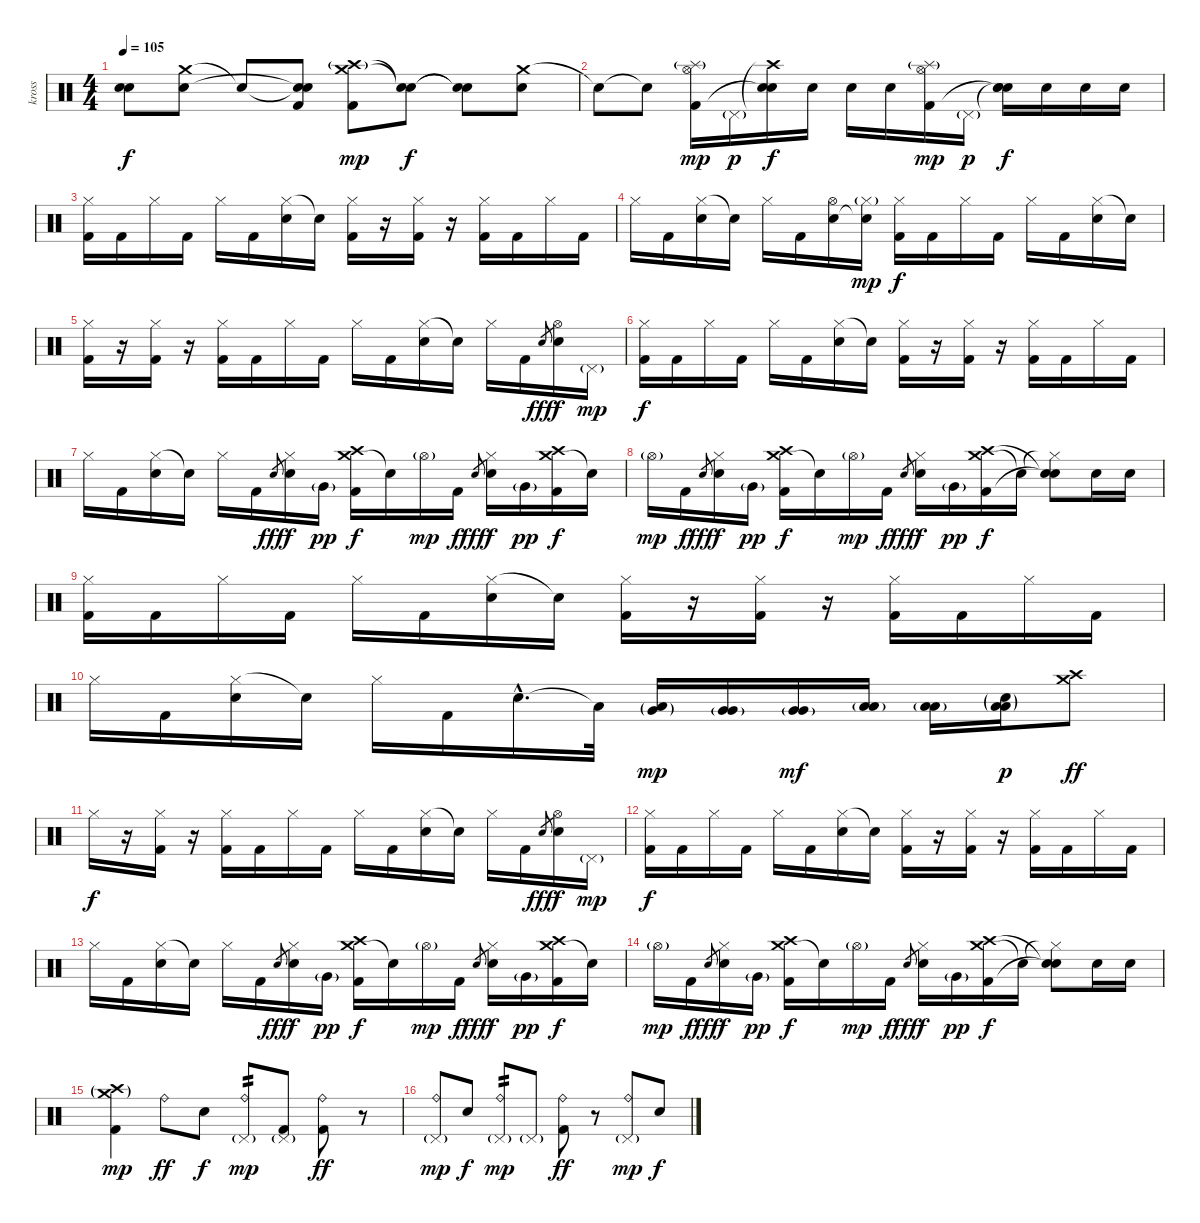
\track ("kross" "kross") {instrument percussion}
\staff {score}
\articulation defaults
\ts (4 4)
\tempo 105
\clef neutral
\ks c
("Snare (hit)"{t} "Snare (hit)"{t}).8{dy f} ("Crash medium (hit)" "Electric Snare (hit)").8 "Snare (hit)"{t}.8 ("Snare (hit)"{t} "Snare (hit)"{t} "Kick (hit) 2").8 ("Crash medium (hit)" "Crash high (hit)"{g} "Kick (hit) 2").8{dy mp} ("Snare (hit)"{t} "Snare (hit)"{t}).8{dy f} ("Snare (hit)"{t} "Snare (hit)"{t}).8 ("Crash medium (hit)" "Electric Snare (hit)").8 |
"Snare (hit)"{t}.8 "Snare (hit)"{t}.8 ("Splash (hit)"{g} "Hi-Hat (open)" "Kick (hit) 2").16{dy mp} "Pedal Hi-Hat (hit)"{g}.16{dy p} ("Crash high (hit)"{t} "Electric Snare (hit)" "Snare (hit)"{t}).16{dy f} "Electric Snare (hit)".16 "Electric Snare (hit)".16 "Electric Snare (hit)".16 ("Splash (hit)"{g} "Hi-Hat (open)" "Kick (hit) 2").16{dy mp} "Pedal Hi-Hat (hit)"{g}.16{dy p} ("Snare (hit)"{t} "Electric Snare (hit)" "Snare (hit)"{t}).16{dy f} "Electric Snare (hit)".16 "Electric Snare (hit)".16 "Electric Snare (hit)".16 |
("Hi-Hat (closed)" "Kick (hit) 2").16 "Kick (hit) 2".16 "Hi-Hat (closed)".16 "Kick (hit) 2".16 "Hi-Hat (closed)".16 "Kick (hit) 2".16 ("Hi-Hat (closed)" "Electric Snare (hit)").16 "Snare (hit)"{t}.16 ("Hi-Hat (closed)" "Kick (hit) 2").16 r.16 ("Hi-Hat (closed)" "Kick (hit) 2").16 r.16 ("Hi-Hat (closed)" "Kick (hit) 2").16 "Kick (hit) 2".16 "Hi-Hat (closed)".16 "Kick (hit) 2".16 |
"Hi-Hat (closed)".16 "Kick (hit) 2".16 ("Hi-Hat (closed)" "Electric Snare (hit)").16 "Snare (hit)"{t}.16 "Hi-Hat (closed)".16 "Kick (hit) 2".16 ("Hi-Hat (open)" "Electric Snare (hit)").16 ("Hi-Hat (closed)"{g} "Snare (hit)"{t}).16{dy mp} ("Hi-Hat (closed)" "Kick (hit) 2").16{dy f} "Kick (hit) 2".16 "Hi-Hat (closed)".16 "Kick (hit) 2".16 "Hi-Hat (closed)".16 "Kick (hit) 2".16 ("Hi-Hat (closed)" "Electric Snare (hit)").16 "Snare (hit)"{t}.16 |
("Hi-Hat (closed)" "Kick (hit) 2").16 r.16 ("Hi-Hat (closed)" "Kick (hit) 2").16 r.16 ("Hi-Hat (closed)" "Kick (hit) 2").16 "Kick (hit) 2".16 "Hi-Hat (closed)".16 "Kick (hit) 2".16 "Hi-Hat (closed)".16 "Kick (hit) 2".16 ("Hi-Hat (closed)" "Electric Snare (hit)").16 "Snare (hit)"{t}.16 "Hi-Hat (closed)".16 "Kick (hit) 2".16 "Electric Snare (hit)".8{gr dy fff} ("Hi-Hat (open)" "Electric Snare (hit)").16{dy f} "Pedal Hi-Hat (hit)"{g}.16{dy mp} |
("Hi-Hat (closed)" "Kick (hit) 2").16{dy f} "Kick (hit) 2".16 "Hi-Hat (closed)".16 "Kick (hit) 2".16 "Hi-Hat (closed)".16 "Kick (hit) 2".16 ("Hi-Hat (closed)" "Electric Snare (hit)").16 "Snare (hit)"{t}.16 ("Hi-Hat (closed)" "Kick (hit) 2").16 r.16 ("Hi-Hat (closed)" "Kick (hit) 2").16 r.16 ("Hi-Hat (closed)" "Kick (hit) 2").16 "Kick (hit) 2".16 "Hi-Hat (closed)".16 "Kick (hit) 2".16 |
"Hi-Hat (closed)".16 "Kick (hit) 2".16 ("Hi-Hat (closed)" "Electric Snare (hit)").16 "Snare (hit)"{t}.16 "Hi-Hat (closed)".16 "Kick (hit) 2".16 "Electric Snare (hit)".8{gr dy fff} ("Hi-Hat (closed)" "Electric Snare (hit)").16{dy f} "Very Low Tom (hit)"{g}.16{dy pp} ("Crash medium (hit)" "Crash high (hit)" "Kick (hit) 2").16{dy f} "Snare (hit)"{t}.16 "Hi-Hat (open)"{g}.16{dy mp} "Kick (hit) 2".16{dy f} "Electric Snare (hit)".8{gr dy fff} ("Hi-Hat (closed)" "Electric Snare (hit)").16{dy f} "Very Low Tom (hit)"{g}.16{dy pp} ("Crash medium (hit)" "Crash high (hit)" "Kick (hit) 2").16{dy f} "Snare (hit)"{t}.16 |
"Hi-Hat (open)"{g}.16{dy mp} "Kick (hit) 2".16{dy f} "Electric Snare (hit)".8{gr dy fff} ("Hi-Hat (closed)" "Electric Snare (hit)").16{dy f} "Very Low Tom (hit)"{g}.16{dy pp} ("Crash medium (hit)" "Crash high (hit)" "Kick (hit) 2").16{dy f} "Snare (hit)"{t}.16 "Hi-Hat (open)"{g}.16{dy mp} "Kick (hit) 2".16{dy f} "Electric Snare (hit)".8{gr dy fff} ("Hi-Hat (closed)" "Electric Snare (hit)").16{dy f} "Very Low Tom (hit)"{g}.16{dy pp} ("Crash medium (hit)" "Crash high (hit)" "Kick (hit) 2").16{dy f} "Snare (hit)"{t}.16 ("Hi-Hat (closed)"{t} "Snare (hit)"{t} "Snare (hit)"{t}).8 "Electric Snare (hit)".16 "Electric Snare (hit)".16 |
("Hi-Hat (closed)" "Kick (hit) 2").16 "Kick (hit) 2".16 "Hi-Hat (closed)".16 "Kick (hit) 2".16 "Hi-Hat (closed)".16 "Kick (hit) 2".16 ("Hi-Hat (closed)" "Electric Snare (hit)").16 "Snare (hit)"{t}.16 ("Hi-Hat (closed)" "Kick (hit) 2").16 r.16 ("Hi-Hat (closed)" "Kick (hit) 2").16 r.16 ("Hi-Hat (closed)" "Kick (hit) 2").16 "Kick (hit) 2".16 "Hi-Hat (closed)".16 "Kick (hit) 2".16 |
"Hi-Hat (closed)".16 "Kick (hit) 2".16 ("Hi-Hat (closed)" "Electric Snare (hit)").16 "Snare (hit)"{t}.16 "Hi-Hat (closed)".16 "Kick (hit) 2".16 "Electric Snare (hit)"{hac}.16{d} "Low Tom (hit)"{t}.32 ("Very Low Tom (hit)"{g} "Low Tom (hit)"{g}).16{dy mp} ("Very Low Tom (hit)"{g} "Very Low Tom (hit)"{g}).16 ("Very Low Tom (hit)"{g} "Very Low Tom (hit)"{g}).16{dy mf} ("Low Floor Tom (hit)"{g} "Low Floor Tom (hit)"{g}).16 ("Low Floor Tom (hit)"{g} "Low Floor Tom (hit)"{g}).16 ("Electric Snare (hit)"{g} "Low Floor Tom (hit)"{g} "Low Floor Tom (hit)"{g}).16{dy p} ("Crash medium (hit)" "Crash high (hit)").8{dy ff} |
"Hi-Hat (closed)".16{dy f} r.16 ("Hi-Hat (closed)" "Kick (hit) 2").16 r.16 ("Hi-Hat (closed)" "Kick (hit) 2").16 "Kick (hit) 2".16 "Hi-Hat (closed)".16 "Kick (hit) 2".16 "Hi-Hat (closed)".16 "Kick (hit) 2".16 ("Hi-Hat (closed)" "Electric Snare (hit)").16 "Snare (hit)"{t}.16 "Hi-Hat (closed)".16 "Kick (hit) 2".16 "Electric Snare (hit)".8{gr dy fff} ("Hi-Hat (open)" "Electric Snare (hit)").16{dy f} "Pedal Hi-Hat (hit)"{g}.16{dy mp} |
("Hi-Hat (closed)" "Kick (hit) 2").16{dy f} "Kick (hit) 2".16 "Hi-Hat (closed)".16 "Kick (hit) 2".16 "Hi-Hat (closed)".16 "Kick (hit) 2".16 ("Hi-Hat (closed)" "Electric Snare (hit)").16 "Snare (hit)"{t}.16 ("Hi-Hat (closed)" "Kick (hit) 2").16 r.16 ("Hi-Hat (closed)" "Kick (hit) 2").16 r.16 ("Hi-Hat (closed)" "Kick (hit) 2").16 "Kick (hit) 2".16 "Hi-Hat (closed)".16 "Kick (hit) 2".16 |
"Hi-Hat (closed)".16 "Kick (hit) 2".16 ("Hi-Hat (closed)" "Electric Snare (hit)").16 "Snare (hit)"{t}.16 "Hi-Hat (closed)".16 "Kick (hit) 2".16 "Electric Snare (hit)".8{gr dy fff} ("Hi-Hat (closed)" "Electric Snare (hit)").16{dy f} "Very Low Tom (hit)"{g}.16{dy pp} ("Crash medium (hit)" "Crash high (hit)" "Kick (hit) 2").16{dy f} "Snare (hit)"{t}.16 "Hi-Hat (open)"{g}.16{dy mp} "Kick (hit) 2".16{dy f} "Electric Snare (hit)".8{gr dy fff} ("Hi-Hat (closed)" "Electric Snare (hit)").16{dy f} "Very Low Tom (hit)"{g}.16{dy pp} ("Crash medium (hit)" "Crash high (hit)" "Kick (hit) 2").16{dy f} "Snare (hit)"{t}.16 |
"Hi-Hat (open)"{g}.16{dy mp} "Kick (hit) 2".16{dy f} "Electric Snare (hit)".8{gr dy fff} ("Hi-Hat (closed)" "Electric Snare (hit)").16{dy f} "Very Low Tom (hit)"{g}.16{dy pp} ("Crash medium (hit)" "Crash high (hit)" "Kick (hit) 2").16{dy f} "Snare (hit)"{t}.16 "Hi-Hat (open)"{g}.16{dy mp} "Kick (hit) 2".16{dy f} "Electric Snare (hit)".8{gr dy fff} ("Hi-Hat (closed)" "Electric Snare (hit)").16{dy f} "Very Low Tom (hit)"{g}.16{dy pp} ("Crash medium (hit)" "Crash high (hit)" "Kick (hit) 2").16{dy f} "Snare (hit)"{t}.16 ("Hi-Hat (closed)"{t} "Snare (hit)"{t} "Snare (hit)"{t}).8 "Electric Snare (hit)".16 "Electric Snare (hit)".16 |
("Crash medium (hit)"{g} "Crash high (hit)"{g} "Kick (hit) 2").4{dy mp} "Ride (bell)".8{dy ff} "Electric Snare (hit)".8{dy f} ("Ride (bell)" "Pedal Hi-Hat (hit)"{g}).8{tp 2 dy mp} ("Pedal Hi-Hat (hit)"{g} "Kick (hit) 2").8 ("Ride (bell)" "Kick (hit) 2").8{dy ff} r.8 |
("Ride (bell)" "Pedal Hi-Hat (hit)"{g}).8{dy mp} "Electric Snare (hit)".8{dy f} ("Ride (bell)" "Pedal Hi-Hat (hit)"{g}).8{tp 2 dy mp} "Pedal Hi-Hat (hit)"{g}.8 ("Ride (bell)" "Kick (hit) 2").8{dy ff} r.8 ("Ride (bell)" "Pedal Hi-Hat (hit)"{g}).8{dy mp} "Electric Snare (hit)".8{dy f}
